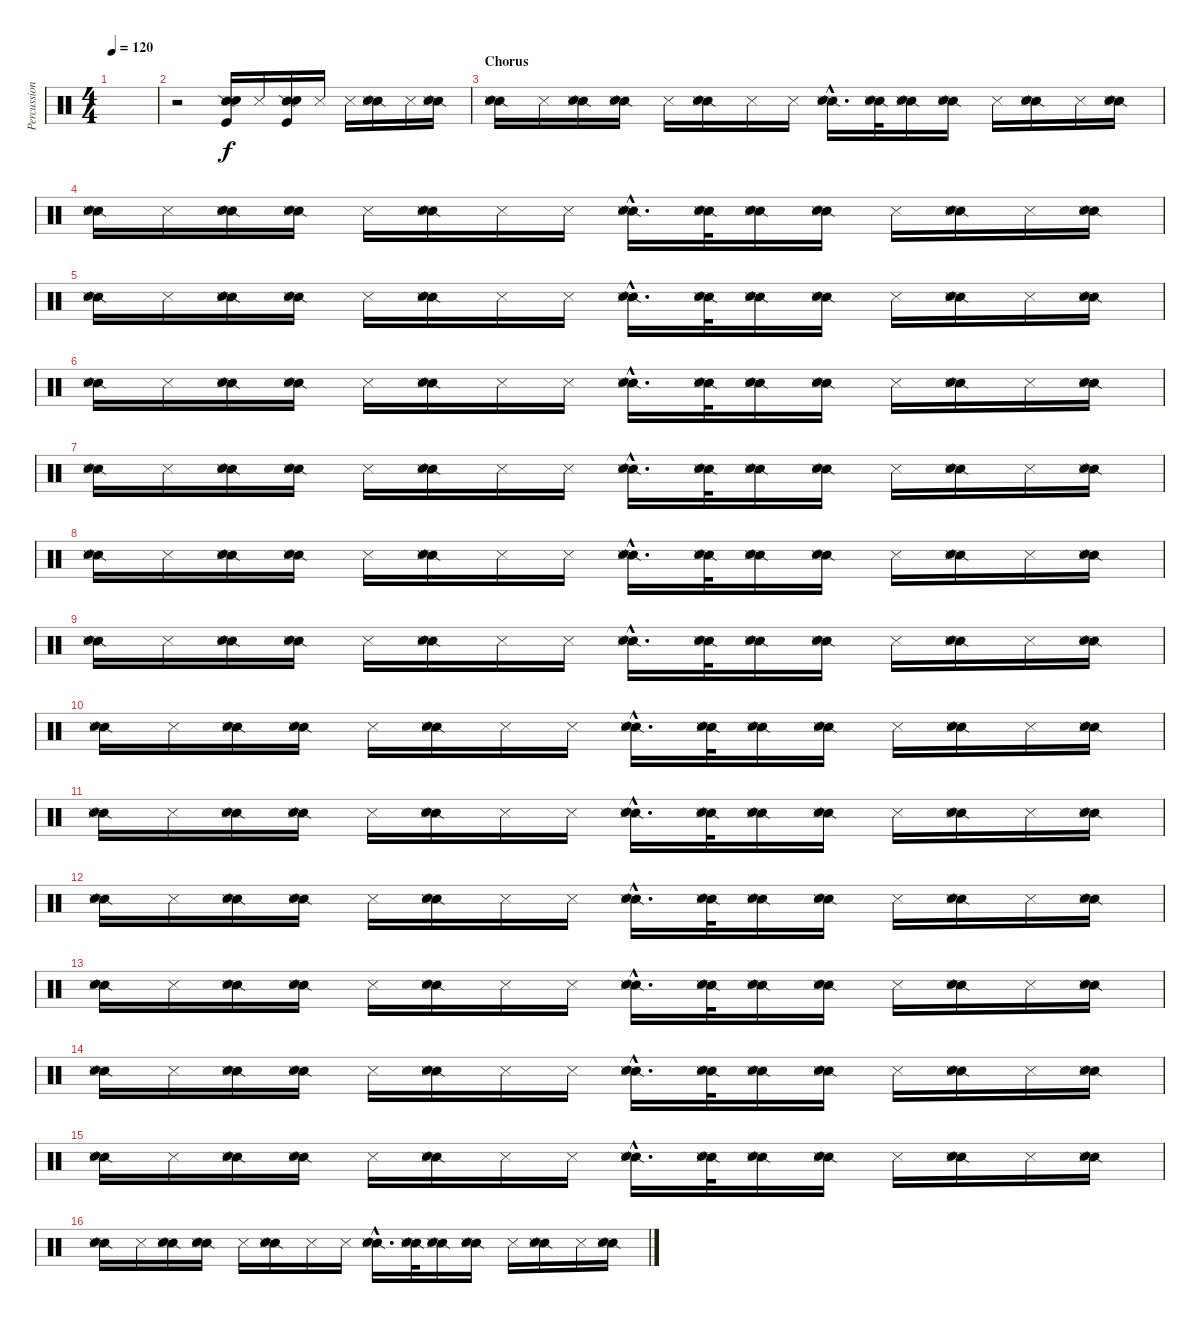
\track ("Percussion" "Percussion") {instrument percussion}
\staff {score}
\articulation defaults
\ts (4 4)
\tempo 120
\clef neutral
\ks c
|
r.2 ("Snare (side stick) 2" "Snare (hit) 2" "Kick (hit)"{x}).16 "Metronome (hit)"{x}.16 ("Snare (side stick) 2" "Snare (hit) 2" "Kick (hit)"{x}).16 "Metronome (hit)"{x}.16 "Metronome (hit)"{x}.16 ("Snare (side stick) 2" "Snare (hit) 2" "Metronome (hit)"{x}).16 "Metronome (hit)"{x}.16 ("Snare (side stick) 2" "Snare (hit) 2" "Metronome (hit)"{x}).16 |
\section ("" "Chorus")
("Snare (side stick) 2" "Snare (hit) 2" "Metronome (hit)"{x}).16 "Metronome (hit)"{x}.16 ("Snare (side stick) 2" "Snare (hit) 2" "Metronome (hit)"{x}).16 ("Snare (side stick) 2" "Snare (hit) 2" "Metronome (hit)"{x}).16 "Metronome (hit)"{x}.16 ("Snare (side stick) 2" "Snare (hit) 2" "Metronome (hit)"{x}).16 "Metronome (hit)"{x}.16 "Metronome (hit)"{x}.16 ("Snare (side stick) 2"{hac} "Snare (hit) 2"{hac} "Metronome (hit)"{hac x}).16{d} ("Snare (side stick) 2" "Snare (hit) 2" "Metronome (hit)"{x}).32 ("Snare (side stick) 2" "Snare (hit) 2" "Metronome (hit)"{x}).16 ("Snare (side stick) 2" "Snare (hit) 2" "Metronome (hit)"{x}).16 "Metronome (hit)"{x}.16 ("Snare (side stick) 2" "Snare (hit) 2" "Metronome (hit)"{x}).16 "Metronome (hit)"{x}.16 ("Snare (side stick) 2" "Snare (hit) 2" "Metronome (hit)"{x}).16 |
("Snare (side stick) 2" "Snare (hit) 2" "Metronome (hit)"{x}).16 "Metronome (hit)"{x}.16 ("Snare (side stick) 2" "Snare (hit) 2" "Metronome (hit)"{x}).16 ("Snare (side stick) 2" "Snare (hit) 2" "Metronome (hit)"{x}).16 "Metronome (hit)"{x}.16 ("Snare (side stick) 2" "Snare (hit) 2" "Metronome (hit)"{x}).16 "Metronome (hit)"{x}.16 "Metronome (hit)"{x}.16 ("Snare (side stick) 2"{hac} "Snare (hit) 2"{hac} "Metronome (hit)"{hac x}).16{d} ("Snare (side stick) 2" "Snare (hit) 2" "Metronome (hit)"{x}).32 ("Snare (side stick) 2" "Snare (hit) 2" "Metronome (hit)"{x}).16 ("Snare (side stick) 2" "Snare (hit) 2" "Metronome (hit)"{x}).16 "Metronome (hit)"{x}.16 ("Snare (side stick) 2" "Snare (hit) 2" "Metronome (hit)"{x}).16 "Metronome (hit)"{x}.16 ("Snare (side stick) 2" "Snare (hit) 2" "Metronome (hit)"{x}).16 |
("Snare (side stick) 2" "Snare (hit) 2" "Metronome (hit)"{x}).16 "Metronome (hit)"{x}.16 ("Snare (side stick) 2" "Snare (hit) 2" "Metronome (hit)"{x}).16 ("Snare (side stick) 2" "Snare (hit) 2" "Metronome (hit)"{x}).16 "Metronome (hit)"{x}.16 ("Snare (side stick) 2" "Snare (hit) 2" "Metronome (hit)"{x}).16 "Metronome (hit)"{x}.16 "Metronome (hit)"{x}.16 ("Snare (side stick) 2"{hac} "Snare (hit) 2"{hac} "Metronome (hit)"{hac x}).16{d} ("Snare (side stick) 2" "Snare (hit) 2" "Metronome (hit)"{x}).32 ("Snare (side stick) 2" "Snare (hit) 2" "Metronome (hit)"{x}).16 ("Snare (side stick) 2" "Snare (hit) 2" "Metronome (hit)"{x}).16 "Metronome (hit)"{x}.16 ("Snare (side stick) 2" "Snare (hit) 2" "Metronome (hit)"{x}).16 "Metronome (hit)"{x}.16 ("Snare (side stick) 2" "Snare (hit) 2" "Metronome (hit)"{x}).16 |
("Snare (side stick) 2" "Snare (hit) 2" "Metronome (hit)"{x}).16 "Metronome (hit)"{x}.16 ("Snare (side stick) 2" "Snare (hit) 2" "Metronome (hit)"{x}).16 ("Snare (side stick) 2" "Snare (hit) 2" "Metronome (hit)"{x}).16 "Metronome (hit)"{x}.16 ("Snare (side stick) 2" "Snare (hit) 2" "Metronome (hit)"{x}).16 "Metronome (hit)"{x}.16 "Metronome (hit)"{x}.16 ("Snare (side stick) 2"{hac} "Snare (hit) 2"{hac} "Metronome (hit)"{hac x}).16{d} ("Snare (side stick) 2" "Snare (hit) 2" "Metronome (hit)"{x}).32 ("Snare (side stick) 2" "Snare (hit) 2" "Metronome (hit)"{x}).16 ("Snare (side stick) 2" "Snare (hit) 2" "Metronome (hit)"{x}).16 "Metronome (hit)"{x}.16 ("Snare (side stick) 2" "Snare (hit) 2" "Metronome (hit)"{x}).16 "Metronome (hit)"{x}.16 ("Snare (side stick) 2" "Snare (hit) 2" "Metronome (hit)"{x}).16 |
("Snare (side stick) 2" "Snare (hit) 2" "Metronome (hit)"{x}).16 "Metronome (hit)"{x}.16 ("Snare (side stick) 2" "Snare (hit) 2" "Metronome (hit)"{x}).16 ("Snare (side stick) 2" "Snare (hit) 2" "Metronome (hit)"{x}).16 "Metronome (hit)"{x}.16 ("Snare (side stick) 2" "Snare (hit) 2" "Metronome (hit)"{x}).16 "Metronome (hit)"{x}.16 "Metronome (hit)"{x}.16 ("Snare (side stick) 2"{hac} "Snare (hit) 2"{hac} "Metronome (hit)"{hac x}).16{d} ("Snare (side stick) 2" "Snare (hit) 2" "Metronome (hit)"{x}).32 ("Snare (side stick) 2" "Snare (hit) 2" "Metronome (hit)"{x}).16 ("Snare (side stick) 2" "Snare (hit) 2" "Metronome (hit)"{x}).16 "Metronome (hit)"{x}.16 ("Snare (side stick) 2" "Snare (hit) 2" "Metronome (hit)"{x}).16 "Metronome (hit)"{x}.16 ("Snare (side stick) 2" "Snare (hit) 2" "Metronome (hit)"{x}).16 |
("Snare (side stick) 2" "Snare (hit) 2" "Metronome (hit)"{x}).16 "Metronome (hit)"{x}.16 ("Snare (side stick) 2" "Snare (hit) 2" "Metronome (hit)"{x}).16 ("Snare (side stick) 2" "Snare (hit) 2" "Metronome (hit)"{x}).16 "Metronome (hit)"{x}.16 ("Snare (side stick) 2" "Snare (hit) 2" "Metronome (hit)"{x}).16 "Metronome (hit)"{x}.16 "Metronome (hit)"{x}.16 ("Snare (side stick) 2"{hac} "Snare (hit) 2"{hac} "Metronome (hit)"{hac x}).16{d} ("Snare (side stick) 2" "Snare (hit) 2" "Metronome (hit)"{x}).32 ("Snare (side stick) 2" "Snare (hit) 2" "Metronome (hit)"{x}).16 ("Snare (side stick) 2" "Snare (hit) 2" "Metronome (hit)"{x}).16 "Metronome (hit)"{x}.16 ("Snare (side stick) 2" "Snare (hit) 2" "Metronome (hit)"{x}).16 "Metronome (hit)"{x}.16 ("Snare (side stick) 2" "Snare (hit) 2" "Metronome (hit)"{x}).16 |
("Snare (side stick) 2" "Snare (hit) 2" "Metronome (hit)"{x}).16 "Metronome (hit)"{x}.16 ("Snare (side stick) 2" "Snare (hit) 2" "Metronome (hit)"{x}).16 ("Snare (side stick) 2" "Snare (hit) 2" "Metronome (hit)"{x}).16 "Metronome (hit)"{x}.16 ("Snare (side stick) 2" "Snare (hit) 2" "Metronome (hit)"{x}).16 "Metronome (hit)"{x}.16 "Metronome (hit)"{x}.16 ("Snare (side stick) 2"{hac} "Snare (hit) 2"{hac} "Metronome (hit)"{hac x}).16{d} ("Snare (side stick) 2" "Snare (hit) 2" "Metronome (hit)"{x}).32 ("Snare (side stick) 2" "Snare (hit) 2" "Metronome (hit)"{x}).16 ("Snare (side stick) 2" "Snare (hit) 2" "Metronome (hit)"{x}).16 "Metronome (hit)"{x}.16 ("Snare (side stick) 2" "Snare (hit) 2" "Metronome (hit)"{x}).16 "Metronome (hit)"{x}.16 ("Snare (side stick) 2" "Snare (hit) 2" "Metronome (hit)"{x}).16 |
("Snare (side stick) 2" "Snare (hit) 2" "Metronome (hit)"{x}).16 "Metronome (hit)"{x}.16 ("Snare (side stick) 2" "Snare (hit) 2" "Metronome (hit)"{x}).16 ("Snare (side stick) 2" "Snare (hit) 2" "Metronome (hit)"{x}).16 "Metronome (hit)"{x}.16 ("Snare (side stick) 2" "Snare (hit) 2" "Metronome (hit)"{x}).16 "Metronome (hit)"{x}.16 "Metronome (hit)"{x}.16 ("Snare (side stick) 2"{hac} "Snare (hit) 2"{hac} "Metronome (hit)"{hac x}).16{d} ("Snare (side stick) 2" "Snare (hit) 2" "Metronome (hit)"{x}).32 ("Snare (side stick) 2" "Snare (hit) 2" "Metronome (hit)"{x}).16 ("Snare (side stick) 2" "Snare (hit) 2" "Metronome (hit)"{x}).16 "Metronome (hit)"{x}.16 ("Snare (side stick) 2" "Snare (hit) 2" "Metronome (hit)"{x}).16 "Metronome (hit)"{x}.16 ("Snare (side stick) 2" "Snare (hit) 2" "Metronome (hit)"{x}).16 |
("Snare (side stick) 2" "Snare (hit) 2" "Metronome (hit)"{x}).16 "Metronome (hit)"{x}.16 ("Snare (side stick) 2" "Snare (hit) 2" "Metronome (hit)"{x}).16 ("Snare (side stick) 2" "Snare (hit) 2" "Metronome (hit)"{x}).16 "Metronome (hit)"{x}.16 ("Snare (side stick) 2" "Snare (hit) 2" "Metronome (hit)"{x}).16 "Metronome (hit)"{x}.16 "Metronome (hit)"{x}.16 ("Snare (side stick) 2"{hac} "Snare (hit) 2"{hac} "Metronome (hit)"{hac x}).16{d} ("Snare (side stick) 2" "Snare (hit) 2" "Metronome (hit)"{x}).32 ("Snare (side stick) 2" "Snare (hit) 2" "Metronome (hit)"{x}).16 ("Snare (side stick) 2" "Snare (hit) 2" "Metronome (hit)"{x}).16 "Metronome (hit)"{x}.16 ("Snare (side stick) 2" "Snare (hit) 2" "Metronome (hit)"{x}).16 "Metronome (hit)"{x}.16 ("Snare (side stick) 2" "Snare (hit) 2" "Metronome (hit)"{x}).16 |
("Snare (side stick) 2" "Snare (hit) 2" "Metronome (hit)"{x}).16 "Metronome (hit)"{x}.16 ("Snare (side stick) 2" "Snare (hit) 2" "Metronome (hit)"{x}).16 ("Snare (side stick) 2" "Snare (hit) 2" "Metronome (hit)"{x}).16 "Metronome (hit)"{x}.16 ("Snare (side stick) 2" "Snare (hit) 2" "Metronome (hit)"{x}).16 "Metronome (hit)"{x}.16 "Metronome (hit)"{x}.16 ("Snare (side stick) 2"{hac} "Snare (hit) 2"{hac} "Metronome (hit)"{hac x}).16{d} ("Snare (side stick) 2" "Snare (hit) 2" "Metronome (hit)"{x}).32 ("Snare (side stick) 2" "Snare (hit) 2" "Metronome (hit)"{x}).16 ("Snare (side stick) 2" "Snare (hit) 2" "Metronome (hit)"{x}).16 "Metronome (hit)"{x}.16 ("Snare (side stick) 2" "Snare (hit) 2" "Metronome (hit)"{x}).16 "Metronome (hit)"{x}.16 ("Snare (side stick) 2" "Snare (hit) 2" "Metronome (hit)"{x}).16 |
("Snare (side stick) 2" "Snare (hit) 2" "Metronome (hit)"{x}).16 "Metronome (hit)"{x}.16 ("Snare (side stick) 2" "Snare (hit) 2" "Metronome (hit)"{x}).16 ("Snare (side stick) 2" "Snare (hit) 2" "Metronome (hit)"{x}).16 "Metronome (hit)"{x}.16 ("Snare (side stick) 2" "Snare (hit) 2" "Metronome (hit)"{x}).16 "Metronome (hit)"{x}.16 "Metronome (hit)"{x}.16 ("Snare (side stick) 2"{hac} "Snare (hit) 2"{hac} "Metronome (hit)"{hac x}).16{d} ("Snare (side stick) 2" "Snare (hit) 2" "Metronome (hit)"{x}).32 ("Snare (side stick) 2" "Snare (hit) 2" "Metronome (hit)"{x}).16 ("Snare (side stick) 2" "Snare (hit) 2" "Metronome (hit)"{x}).16 "Metronome (hit)"{x}.16 ("Snare (side stick) 2" "Snare (hit) 2" "Metronome (hit)"{x}).16 "Metronome (hit)"{x}.16 ("Snare (side stick) 2" "Snare (hit) 2" "Metronome (hit)"{x}).16 |
("Snare (side stick) 2" "Snare (hit) 2" "Metronome (hit)"{x}).16 "Metronome (hit)"{x}.16 ("Snare (side stick) 2" "Snare (hit) 2" "Metronome (hit)"{x}).16 ("Snare (side stick) 2" "Snare (hit) 2" "Metronome (hit)"{x}).16 "Metronome (hit)"{x}.16 ("Snare (side stick) 2" "Snare (hit) 2" "Metronome (hit)"{x}).16 "Metronome (hit)"{x}.16 "Metronome (hit)"{x}.16 ("Snare (side stick) 2"{hac} "Snare (hit) 2"{hac} "Metronome (hit)"{hac x}).16{d} ("Snare (side stick) 2" "Snare (hit) 2" "Metronome (hit)"{x}).32 ("Snare (side stick) 2" "Snare (hit) 2" "Metronome (hit)"{x}).16 ("Snare (side stick) 2" "Snare (hit) 2" "Metronome (hit)"{x}).16 "Metronome (hit)"{x}.16 ("Snare (side stick) 2" "Snare (hit) 2" "Metronome (hit)"{x}).16 "Metronome (hit)"{x}.16 ("Snare (side stick) 2" "Snare (hit) 2" "Metronome (hit)"{x}).16 |
("Snare (side stick) 2" "Snare (hit) 2" "Metronome (hit)"{x}).16 "Metronome (hit)"{x}.16 ("Snare (side stick) 2" "Snare (hit) 2" "Metronome (hit)"{x}).16 ("Snare (side stick) 2" "Snare (hit) 2" "Metronome (hit)"{x}).16 "Metronome (hit)"{x}.16 ("Snare (side stick) 2" "Snare (hit) 2" "Metronome (hit)"{x}).16 "Metronome (hit)"{x}.16 "Metronome (hit)"{x}.16 ("Snare (side stick) 2"{hac} "Snare (hit) 2"{hac} "Metronome (hit)"{hac x}).16{d} ("Snare (side stick) 2" "Snare (hit) 2" "Metronome (hit)"{x}).32 ("Snare (side stick) 2" "Snare (hit) 2" "Metronome (hit)"{x}).16 ("Snare (side stick) 2" "Snare (hit) 2" "Metronome (hit)"{x}).16 "Metronome (hit)"{x}.16 ("Snare (side stick) 2" "Snare (hit) 2" "Metronome (hit)"{x}).16 "Metronome (hit)"{x}.16 ("Snare (side stick) 2" "Snare (hit) 2" "Metronome (hit)"{x}).16 |
("Snare (side stick) 2" "Snare (hit) 2" "Metronome (hit)"{x}).16 "Metronome (hit)"{x}.16 ("Snare (side stick) 2" "Snare (hit) 2" "Metronome (hit)"{x}).16 ("Snare (side stick) 2" "Snare (hit) 2" "Metronome (hit)"{x}).16 "Metronome (hit)"{x}.16 ("Snare (side stick) 2" "Snare (hit) 2" "Metronome (hit)"{x}).16 "Metronome (hit)"{x}.16 "Metronome (hit)"{x}.16 ("Snare (side stick) 2"{hac} "Snare (hit) 2"{hac} "Metronome (hit)"{hac x}).16{d} ("Snare (side stick) 2" "Snare (hit) 2" "Metronome (hit)"{x}).32 ("Snare (side stick) 2" "Snare (hit) 2" "Metronome (hit)"{x}).16 ("Snare (side stick) 2" "Snare (hit) 2" "Metronome (hit)"{x}).16 "Metronome (hit)"{x}.16 ("Snare (side stick) 2" "Snare (hit) 2" "Metronome (hit)"{x}).16 "Metronome (hit)"{x}.16 ("Snare (side stick) 2" "Snare (hit) 2" "Metronome (hit)"{x}).16
